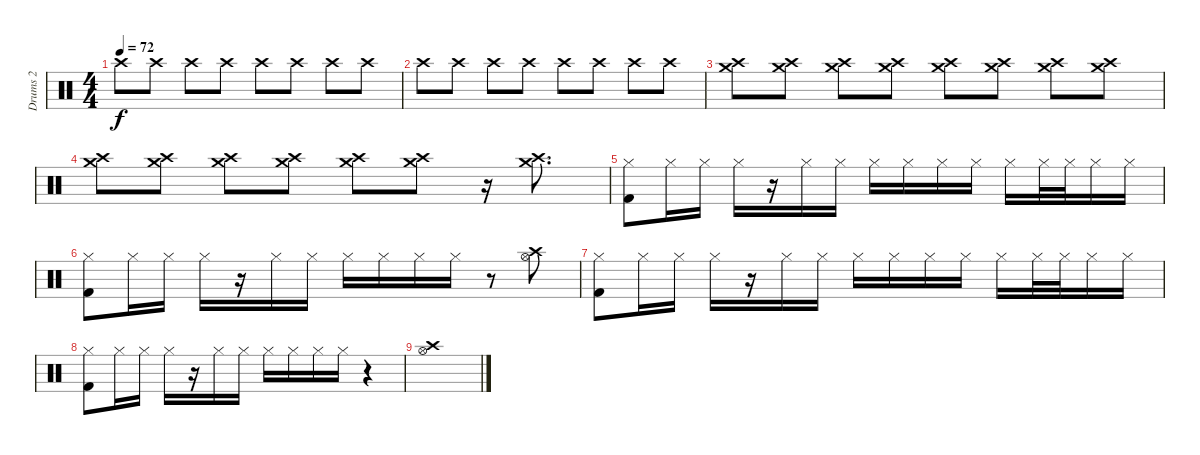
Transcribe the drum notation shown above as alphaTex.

\track ("Drums 2" "Drums 2") {instrument percussion}
\staff {score}
\articulation defaults
\ts (4 4)
\tempo 72
\clef neutral
\ks c "Crash high (hit)".8{dy f} "Crash high (hit)".8 "Crash high (hit)".8 "Crash high (hit)".8 "Crash high (hit)".8 "Crash high (hit)".8 "Crash high (hit)".8 "Crash high (hit)".8
|
"Crash high (hit)".8 "Crash high (hit)".8 "Crash high (hit)".8 "Crash high (hit)".8 "Crash high (hit)".8 "Crash high (hit)".8 "Crash high (hit)".8 "Crash high (hit)".8 |
("Crash high (hit)" "Crash medium (hit)").8 ("Crash high (hit)" "Crash medium (hit)").8 ("Crash high (hit)" "Crash medium (hit)").8 ("Crash high (hit)" "Crash medium (hit)").8 ("Crash high (hit)" "Crash medium (hit)").8 ("Crash high (hit)" "Crash medium (hit)").8 ("Crash high (hit)" "Crash medium (hit)").8 ("Crash high (hit)" "Crash medium (hit)").8 |
("Crash high (hit)" "Crash medium (hit)").8 ("Crash high (hit)" "Crash medium (hit)").8 ("Crash high (hit)" "Crash medium (hit)").8 ("Crash high (hit)" "Crash medium (hit)").8 ("Crash high (hit)" "Crash medium (hit)").8 ("Crash high (hit)" "Crash medium (hit)").8 r.16 ("Crash high (hit)" "Crash medium (hit)").8{d} |
("Hi-Hat (closed)" "Kick (hit) 2").8 "Hi-Hat (closed)".16 "Hi-Hat (closed)".16 "Hi-Hat (closed)".16 r.16 "Hi-Hat (closed)".16 "Hi-Hat (closed)".16 "Hi-Hat (closed)".16 "Hi-Hat (closed)".16 "Hi-Hat (closed)".16 "Hi-Hat (closed)".16 "Hi-Hat (closed)".16 "Hi-Hat (closed)".32 "Hi-Hat (closed)".32 "Hi-Hat (closed)".16 "Hi-Hat (closed)".16 |
("Hi-Hat (closed)" "Kick (hit) 2").8 "Hi-Hat (closed)".16 "Hi-Hat (closed)".16 "Hi-Hat (closed)".16 r.16 "Hi-Hat (closed)".16 "Hi-Hat (closed)".16 "Hi-Hat (closed)".16 "Hi-Hat (closed)".16 "Hi-Hat (closed)".16 "Hi-Hat (closed)".16 r.8 ("Hi-Hat (open)" "Crash high (hit)").8 |
("Hi-Hat (closed)" "Kick (hit) 2").8{balance 12} "Hi-Hat (closed)".16 "Hi-Hat (closed)".16 "Hi-Hat (closed)".16 r.16 "Hi-Hat (closed)".16 "Hi-Hat (closed)".16 "Hi-Hat (closed)".16 "Hi-Hat (closed)".16 "Hi-Hat (closed)".16 "Hi-Hat (closed)".16 "Hi-Hat (closed)".16 "Hi-Hat (closed)".32 "Hi-Hat (closed)".32 "Hi-Hat (closed)".16 "Hi-Hat (closed)".16 |
("Hi-Hat (closed)" "Kick (hit) 2").8 "Hi-Hat (closed)".16 "Hi-Hat (closed)".16 "Hi-Hat (closed)".16 r.16 "Hi-Hat (closed)".16 "Hi-Hat (closed)".16 "Hi-Hat (closed)".16 "Hi-Hat (closed)".16 "Hi-Hat (closed)".16 "Hi-Hat (closed)".16 r.4 |
("Hi-Hat (open)" "Crash high (hit)").1
